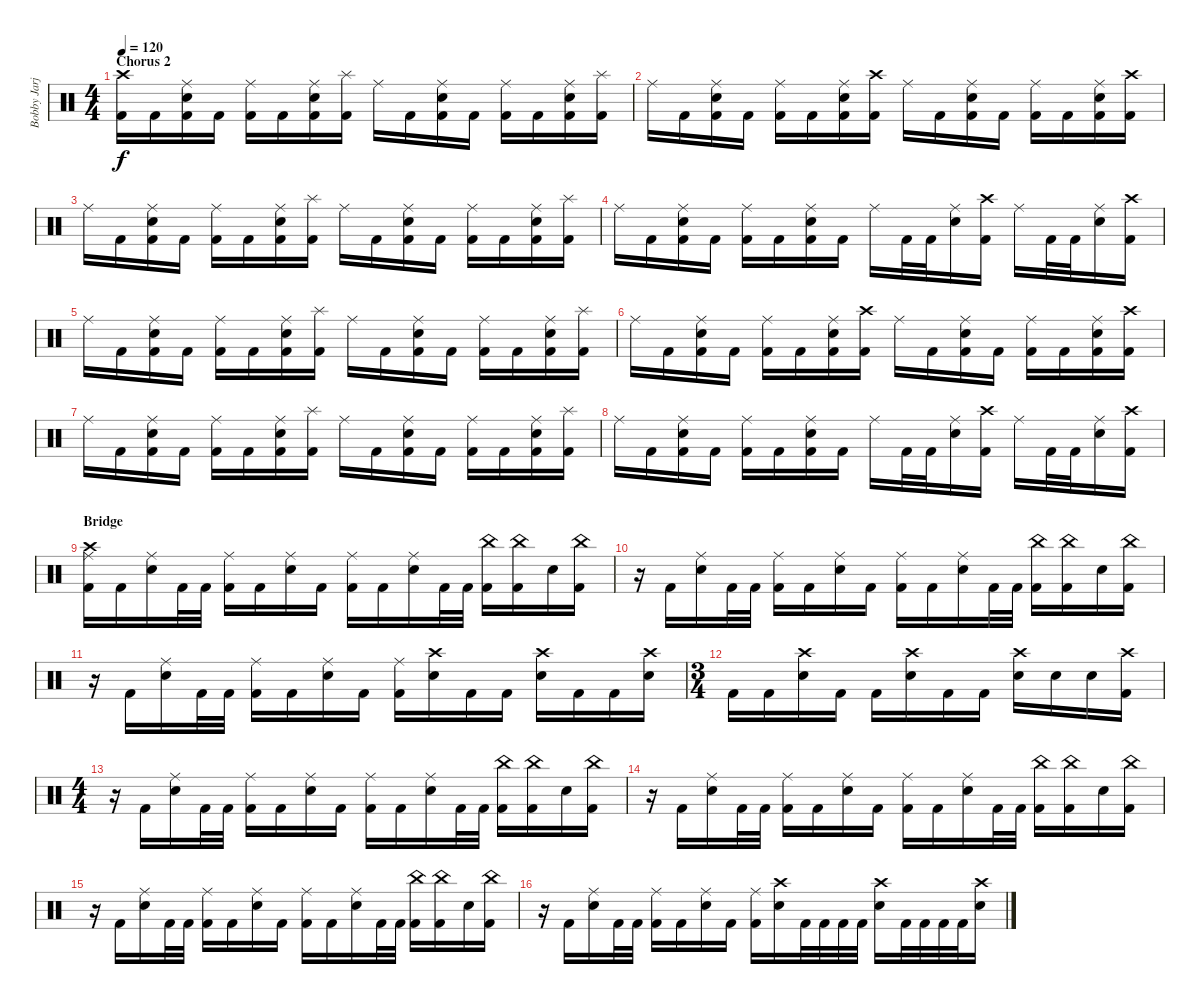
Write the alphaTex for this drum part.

\track ("Bobby Jarjombek" "Bobby Jarj") {instrument percussion}
\staff {score}
\articulation defaults
\ts (4 4)
\section ("" "Chorus 2")
\tempo 120
\clef neutral
\ks c
("Kick (hit) 2" "Crash high (hit)").16{dy f} "Kick (hit) 2".16 ("Kick (hit) 2" "Ride (middle)" "Electric Snare (hit)").16 "Kick (hit) 2".16 ("Kick (hit) 2" "Ride (middle)").16 "Kick (hit) 2".16 ("Kick (hit) 2" "Ride (middle)" "Electric Snare (hit)").16 ("Kick (hit) 2" "Splash (hit)").16 "Ride (middle)".16 "Kick (hit) 2".16 ("Kick (hit) 2" "Ride (middle)" "Electric Snare (hit)").16 "Kick (hit) 2".16 ("Kick (hit) 2" "Ride (middle)").16 "Kick (hit) 2".16 ("Kick (hit) 2" "Ride (middle)" "Electric Snare (hit)").16 ("Kick (hit) 2" "Splash (hit)").16 |
"Ride (middle)".16 "Kick (hit) 2".16 ("Kick (hit) 2" "Ride (middle)" "Electric Snare (hit)").16 "Kick (hit) 2".16 ("Kick (hit) 2" "Ride (middle)").16 "Kick (hit) 2".16 ("Kick (hit) 2" "Ride (middle)" "Electric Snare (hit)").16 ("Kick (hit) 2" "Crash high (hit)").16 "Ride (middle)".16 "Kick (hit) 2".16 ("Kick (hit) 2" "Ride (middle)" "Electric Snare (hit)").16 "Kick (hit) 2".16 ("Kick (hit) 2" "Ride (middle)").16 "Kick (hit) 2".16 ("Kick (hit) 2" "Ride (middle)" "Electric Snare (hit)").16 ("Kick (hit) 2" "Crash high (hit)").16 |
"Ride (middle)".16 "Kick (hit) 2".16 ("Kick (hit) 2" "Ride (middle)" "Electric Snare (hit)").16 "Kick (hit) 2".16 ("Kick (hit) 2" "Ride (middle)").16 "Kick (hit) 2".16 ("Kick (hit) 2" "Ride (middle)" "Electric Snare (hit)").16 ("Kick (hit) 2" "Splash (hit)").16 "Ride (middle)".16 "Kick (hit) 2".16 ("Kick (hit) 2" "Ride (middle)" "Electric Snare (hit)").16 "Kick (hit) 2".16 ("Kick (hit) 2" "Ride (middle)").16 "Kick (hit) 2".16 ("Kick (hit) 2" "Ride (middle)" "Electric Snare (hit)").16 ("Kick (hit) 2" "Splash (hit)").16 |
"Ride (middle)".16 "Kick (hit) 2".16 ("Kick (hit) 2" "Ride (middle)" "Electric Snare (hit)").16 "Kick (hit) 2".16 ("Kick (hit) 2" "Ride (middle)").16 "Kick (hit) 2".16 ("Kick (hit) 2" "Ride (middle)" "Electric Snare (hit)").16 "Kick (hit) 2".16 "Ride (middle)".16 "Kick (hit) 2".32 "Kick (hit) 2".32 ("Ride (middle)" "Electric Snare (hit)").16 ("Kick (hit) 2" "Crash high (hit)").16 "Ride (middle)".16 "Kick (hit) 2".32 "Kick (hit) 2".32 ("Ride (middle)" "Electric Snare (hit)").16 ("Kick (hit) 2" "Crash high (hit)").16 |
"Ride (middle)".16 "Kick (hit) 2".16 ("Kick (hit) 2" "Ride (middle)" "Electric Snare (hit)").16 "Kick (hit) 2".16 ("Kick (hit) 2" "Ride (middle)").16 "Kick (hit) 2".16 ("Kick (hit) 2" "Ride (middle)" "Electric Snare (hit)").16 ("Kick (hit) 2" "Splash (hit)").16 "Ride (middle)".16 "Kick (hit) 2".16 ("Kick (hit) 2" "Ride (middle)" "Electric Snare (hit)").16 "Kick (hit) 2".16 ("Kick (hit) 2" "Ride (middle)").16 "Kick (hit) 2".16 ("Kick (hit) 2" "Ride (middle)" "Electric Snare (hit)").16 ("Kick (hit) 2" "Splash (hit)").16 |
"Ride (middle)".16 "Kick (hit) 2".16 ("Kick (hit) 2" "Ride (middle)" "Electric Snare (hit)").16 "Kick (hit) 2".16 ("Kick (hit) 2" "Ride (middle)").16 "Kick (hit) 2".16 ("Kick (hit) 2" "Ride (middle)" "Electric Snare (hit)").16 ("Kick (hit) 2" "Crash high (hit)").16 "Ride (middle)".16 "Kick (hit) 2".16 ("Kick (hit) 2" "Ride (middle)" "Electric Snare (hit)").16 "Kick (hit) 2".16 ("Kick (hit) 2" "Ride (middle)").16 "Kick (hit) 2".16 ("Kick (hit) 2" "Ride (middle)" "Electric Snare (hit)").16 ("Kick (hit) 2" "Crash high (hit)").16 |
"Ride (middle)".16 "Kick (hit) 2".16 ("Kick (hit) 2" "Ride (middle)" "Electric Snare (hit)").16 "Kick (hit) 2".16 ("Kick (hit) 2" "Ride (middle)").16 "Kick (hit) 2".16 ("Kick (hit) 2" "Ride (middle)" "Electric Snare (hit)").16 ("Kick (hit) 2" "Splash (hit)").16 "Ride (middle)".16 "Kick (hit) 2".16 ("Kick (hit) 2" "Ride (middle)" "Electric Snare (hit)").16 "Kick (hit) 2".16 ("Kick (hit) 2" "Ride (middle)").16 "Kick (hit) 2".16 ("Kick (hit) 2" "Ride (middle)" "Electric Snare (hit)").16 ("Kick (hit) 2" "Splash (hit)").16 |
"Ride (middle)".16 "Kick (hit) 2".16 ("Kick (hit) 2" "Ride (middle)" "Electric Snare (hit)").16 "Kick (hit) 2".16 ("Kick (hit) 2" "Ride (middle)").16 "Kick (hit) 2".16 ("Kick (hit) 2" "Ride (middle)" "Electric Snare (hit)").16 "Kick (hit) 2".16 "Ride (middle)".16 "Kick (hit) 2".32 "Kick (hit) 2".32 ("Ride (middle)" "Electric Snare (hit)").16 ("Kick (hit) 2" "Crash high (hit)").16 "Ride (middle)".16 "Kick (hit) 2".32 "Kick (hit) 2".32 ("Ride (middle)" "Electric Snare (hit)").16 ("Kick (hit) 2" "Crash high (hit)").16 |
\section ("" "Bridge")
("Kick (hit) 2" "Crash high (hit)" "Ride (middle)").16 "Kick (hit) 2".16 ("Ride (middle)" "Electric Snare (hit)").16 "Kick (hit) 2".32 "Kick (hit) 2".32 ("Kick (hit) 2" "Ride (middle)").16 "Kick (hit) 2".16 ("Ride (middle)" "Electric Snare (hit)").16 "Kick (hit) 2".16 ("Kick (hit) 2" "Ride (middle)").16 "Kick (hit) 2".16 ("Ride (middle)" "Electric Snare (hit)").16 "Kick (hit) 2".32 "Kick (hit) 2".32 ("Kick (hit) 2" "China (hit)").16 ("Kick (hit) 2" "China (hit)").16 "Electric Snare (hit)".16 ("Kick (hit) 2" "China (hit)").16 |
r.16 "Kick (hit) 2".16 ("Ride (middle)" "Electric Snare (hit)").16 "Kick (hit) 2".32 "Kick (hit) 2".32 ("Kick (hit) 2" "Ride (middle)").16 "Kick (hit) 2".16 ("Ride (middle)" "Electric Snare (hit)").16 "Kick (hit) 2".16 ("Kick (hit) 2" "Ride (middle)").16 "Kick (hit) 2".16 ("Ride (middle)" "Electric Snare (hit)").16 "Kick (hit) 2".32 "Kick (hit) 2".32 ("Kick (hit) 2" "China (hit)").16 ("Kick (hit) 2" "China (hit)").16 "Electric Snare (hit)".16 ("Kick (hit) 2" "China (hit)").16 |
r.16 "Kick (hit) 2".16 ("Ride (middle)" "Electric Snare (hit)").16 "Kick (hit) 2".32 "Kick (hit) 2".32 ("Kick (hit) 2" "Ride (middle)").16 "Kick (hit) 2".16 ("Ride (middle)" "Electric Snare (hit)").16 "Kick (hit) 2".16 ("Kick (hit) 2" "Ride (middle)").16 ("Crash high (hit)" "Electric Snare (hit)").16 "Kick (hit) 2".16 "Kick (hit) 2".16 ("Crash high (hit)" "Electric Snare (hit)").16 "Kick (hit) 2".16 "Kick (hit) 2".16 ("Crash high (hit)" "Electric Snare (hit)").16 |
\ts (3 4)
"Kick (hit) 2".16 "Kick (hit) 2".16 ("Crash high (hit)" "Electric Snare (hit)").16 "Kick (hit) 2".16 "Kick (hit) 2".16 ("Crash high (hit)" "Electric Snare (hit)").16 "Kick (hit) 2".16 "Kick (hit) 2".16 ("Crash high (hit)" "Electric Snare (hit)").16 "Electric Snare (hit)".16 "Electric Snare (hit)".16 ("Kick (hit) 2" "Crash high (hit)").16 |
\ts (4 4)
r.16 "Kick (hit) 2".16 ("Ride (middle)" "Electric Snare (hit)").16 "Kick (hit) 2".32 "Kick (hit) 2".32 ("Kick (hit) 2" "Ride (middle)").16 "Kick (hit) 2".16 ("Ride (middle)" "Electric Snare (hit)").16 "Kick (hit) 2".16 ("Kick (hit) 2" "Ride (middle)").16 "Kick (hit) 2".16 ("Ride (middle)" "Electric Snare (hit)").16 "Kick (hit) 2".32 "Kick (hit) 2".32 ("Kick (hit) 2" "China (hit)").16 ("Kick (hit) 2" "China (hit)").16 "Electric Snare (hit)".16 ("Kick (hit) 2" "China (hit)").16 |
r.16 "Kick (hit) 2".16 ("Ride (middle)" "Electric Snare (hit)").16 "Kick (hit) 2".32 "Kick (hit) 2".32 ("Kick (hit) 2" "Ride (middle)").16 "Kick (hit) 2".16 ("Ride (middle)" "Electric Snare (hit)").16 "Kick (hit) 2".16 ("Kick (hit) 2" "Ride (middle)").16 "Kick (hit) 2".16 ("Ride (middle)" "Electric Snare (hit)").16 "Kick (hit) 2".32 "Kick (hit) 2".32 ("Kick (hit) 2" "China (hit)").16 ("Kick (hit) 2" "China (hit)").16 "Electric Snare (hit)".16 ("Kick (hit) 2" "China (hit)").16 |
r.16 "Kick (hit) 2".16 ("Ride (middle)" "Electric Snare (hit)").16 "Kick (hit) 2".32 "Kick (hit) 2".32 ("Kick (hit) 2" "Ride (middle)").16 "Kick (hit) 2".16 ("Ride (middle)" "Electric Snare (hit)").16 "Kick (hit) 2".16 ("Kick (hit) 2" "Ride (middle)").16 "Kick (hit) 2".16 ("Ride (middle)" "Electric Snare (hit)").16 "Kick (hit) 2".32 "Kick (hit) 2".32 ("Kick (hit) 2" "China (hit)").16 ("Kick (hit) 2" "China (hit)").16 "Electric Snare (hit)".16 ("Kick (hit) 2" "China (hit)").16 |
r.16 "Kick (hit) 2".16 ("Ride (middle)" "Electric Snare (hit)").16 "Kick (hit) 2".32 "Kick (hit) 2".32 ("Kick (hit) 2" "Ride (middle)").16 "Kick (hit) 2".16 ("Ride (middle)" "Electric Snare (hit)").16 "Kick (hit) 2".16 ("Kick (hit) 2" "Ride (middle)").16 ("Crash high (hit)" "Electric Snare (hit)").16 "Kick (hit) 2".32 "Kick (hit) 2".32 "Kick (hit) 2".32 "Kick (hit) 2".32 ("Crash high (hit)" "Electric Snare (hit)").16 "Kick (hit) 2".32 "Kick (hit) 2".32 "Kick (hit) 2".32 "Kick (hit) 2".32 ("Crash high (hit)" "Electric Snare (hit)").16
